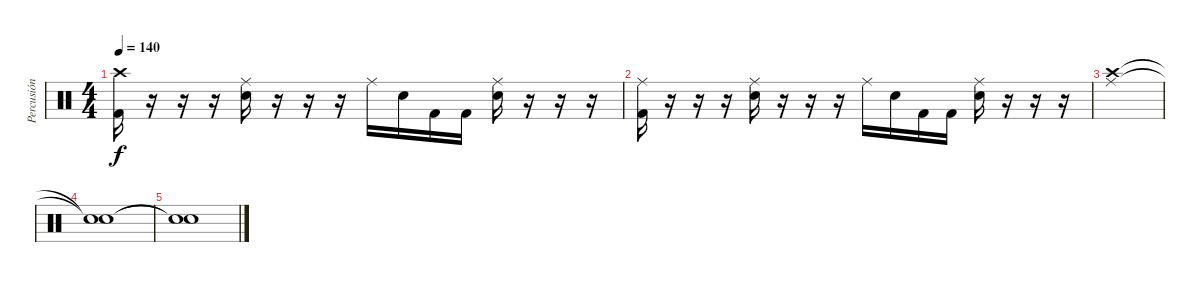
\track ("Percusión" "Percusión") {instrument percussion}
\staff {score}
\articulation defaults
\ts (4 4)
\tempo 140
\clef neutral
\ks c
("Crash high (hit)" "Kick (hit) 2").16{dy f} r.16 r.16 r.16 ("Ride (middle)" "Snare (hit) 2").16 r.16 r.16 r.16 "Ride (middle)".16 "Snare (hit) 2".16 "Kick (hit) 2".16 "Kick (hit) 2".16 ("Ride (middle)" "Snare (hit) 2").16 r.16 r.16 r.16 |
("Ride (middle)" "Kick (hit) 2").16 r.16 r.16 r.16 ("Ride (middle)" "Snare (hit) 2").16 r.16 r.16 r.16 "Ride (middle)".16 "Snare (hit) 2".16 "Kick (hit) 2".16 "Kick (hit) 2".16 ("Ride (middle)" "Snare (hit) 2").16 r.16 r.16 r.16 |
("Crash high (hit)" "Ride (middle)").1 |
("Snare (hit)"{t} "Snare (hit)"{t}).1 |
("Snare (hit)"{t} "Snare (hit)"{t}).1
